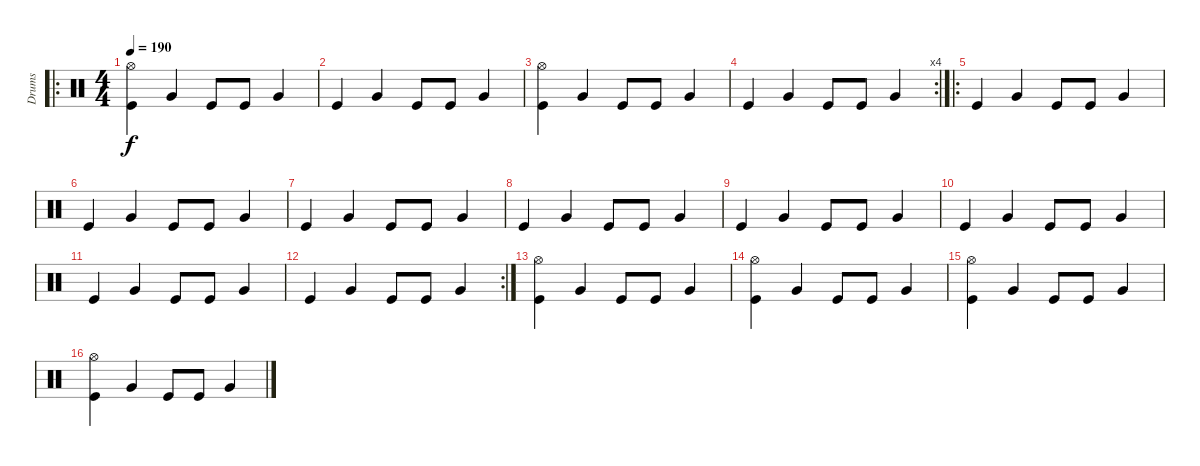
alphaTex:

\track ("Drums" "Drums") {instrument percussion}
\staff {score}
\articulation defaults
\ro
\ts (4 4)
\tempo 190
\clef neutral
\ks c
("Hi-Hat (open)" "Kick (hit)").4{dy f} "Very Low Tom (hit)".4 "Kick (hit)".8 "Kick (hit)".8 "Very Low Tom (hit)".4 |
"Kick (hit)".4 "Very Low Tom (hit)".4 "Kick (hit)".8 "Kick (hit)".8 "Very Low Tom (hit)".4 |
("Hi-Hat (open)" "Kick (hit)").4 "Very Low Tom (hit)".4 "Kick (hit)".8 "Kick (hit)".8 "Very Low Tom (hit)".4 |
\rc 4 "Kick (hit)".4 "Very Low Tom (hit)".4 "Kick (hit)".8 "Kick (hit)".8 "Very Low Tom (hit)".4
|
\ro "Kick (hit)".4 "Very Low Tom (hit)".4 "Kick (hit)".8 "Kick (hit)".8 "Very Low Tom (hit)".4
|
"Kick (hit)".4 "Very Low Tom (hit)".4 "Kick (hit)".8 "Kick (hit)".8 "Very Low Tom (hit)".4 |
"Kick (hit)".4 "Very Low Tom (hit)".4 "Kick (hit)".8 "Kick (hit)".8 "Very Low Tom (hit)".4 |
"Kick (hit)".4 "Very Low Tom (hit)".4 "Kick (hit)".8 "Kick (hit)".8 "Very Low Tom (hit)".4 |
"Kick (hit)".4 "Very Low Tom (hit)".4 "Kick (hit)".8 "Kick (hit)".8 "Very Low Tom (hit)".4 |
"Kick (hit)".4 "Very Low Tom (hit)".4 "Kick (hit)".8 "Kick (hit)".8 "Very Low Tom (hit)".4 |
"Kick (hit)".4 "Very Low Tom (hit)".4 "Kick (hit)".8 "Kick (hit)".8 "Very Low Tom (hit)".4 |
\rc 2 "Kick (hit)".4 "Very Low Tom (hit)".4 "Kick (hit)".8 "Kick (hit)".8 "Very Low Tom (hit)".4
|
("Hi-Hat (open)" "Kick (hit)").4 "Very Low Tom (hit)".4 "Kick (hit)".8 "Kick (hit)".8 "Very Low Tom (hit)".4 |
("Hi-Hat (open)" "Kick (hit)").4 "Very Low Tom (hit)".4 "Kick (hit)".8 "Kick (hit)".8 "Very Low Tom (hit)".4 |
("Hi-Hat (open)" "Kick (hit)").4 "Very Low Tom (hit)".4 "Kick (hit)".8 "Kick (hit)".8 "Very Low Tom (hit)".4 |
("Hi-Hat (open)" "Kick (hit)").4 "Very Low Tom (hit)".4 "Kick (hit)".8 "Kick (hit)".8 "Very Low Tom (hit)".4
